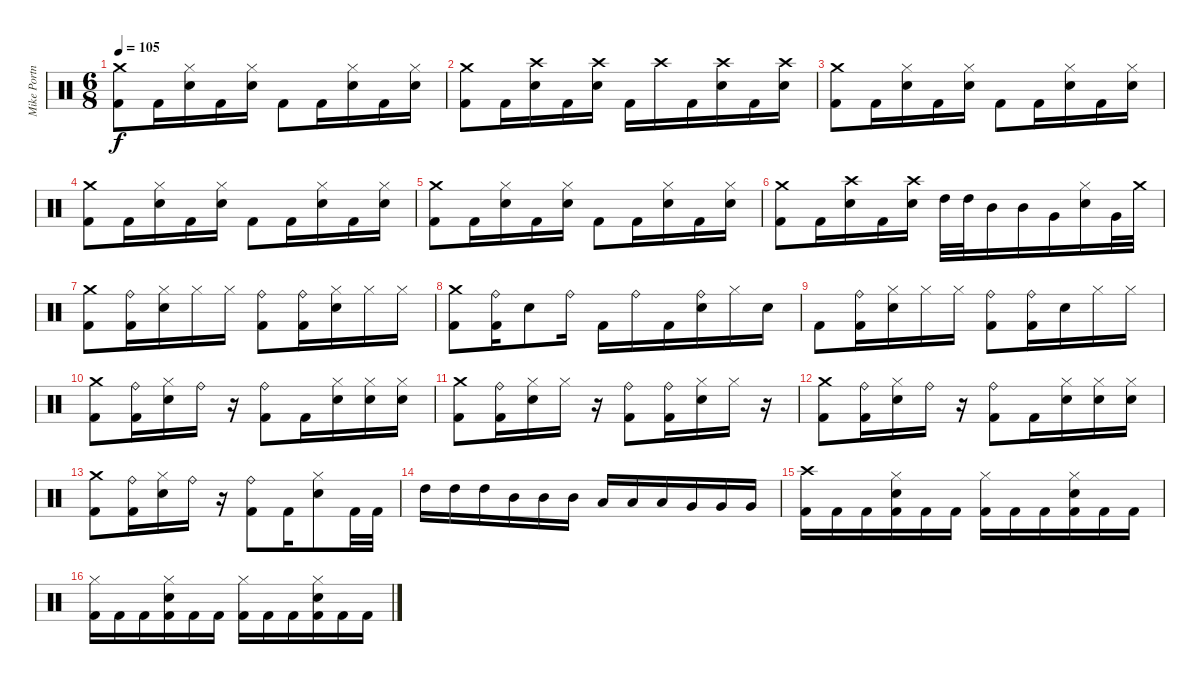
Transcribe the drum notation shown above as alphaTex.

\track ("Mike Portnoy" "Mike Portn") {instrument percussion}
\staff {score}
\articulation defaults
\ts (6 8)
\tempo 105
\clef neutral
\ks c
("Crash medium (hit)" "Kick (hit) 2").8{dy f} "Kick (hit) 2".16 ("Hi-Hat (closed)" "Electric Snare (hit)").16 "Kick (hit) 2".16 ("Hi-Hat (closed)" "Electric Snare (hit)").16 "Kick (hit) 2".8 "Kick (hit) 2".16 ("Hi-Hat (closed)" "Electric Snare (hit)").16 "Kick (hit) 2".16 ("Hi-Hat (closed)" "Electric Snare (hit)").16 |
("Crash medium (hit)" "Kick (hit) 2").8 "Kick (hit) 2".16 ("Crash high (hit)" "Electric Snare (hit)").16 "Kick (hit) 2".16 ("Crash high (hit)" "Electric Snare (hit)").16 "Kick (hit) 2".16 "Crash high (hit)".16 "Kick (hit) 2".16 ("Crash high (hit)" "Electric Snare (hit)").16 "Kick (hit) 2".16 ("Crash high (hit)" "Electric Snare (hit)").16 |
("Crash medium (hit)" "Kick (hit) 2").8 "Kick (hit) 2".16 ("Hi-Hat (closed)" "Electric Snare (hit)").16 "Kick (hit) 2".16 ("Hi-Hat (closed)" "Electric Snare (hit)").16 "Kick (hit) 2".8 "Kick (hit) 2".16 ("Hi-Hat (closed)" "Electric Snare (hit)").16 "Kick (hit) 2".16 ("Hi-Hat (closed)" "Electric Snare (hit)").16 |
("Crash medium (hit)" "Kick (hit) 2").8 "Kick (hit) 2".16 ("Hi-Hat (closed)" "Electric Snare (hit)").16 "Kick (hit) 2".16 ("Hi-Hat (closed)" "Electric Snare (hit)").16 "Kick (hit) 2".8 "Kick (hit) 2".16 ("Hi-Hat (closed)" "Electric Snare (hit)").16 "Kick (hit) 2".16 ("Hi-Hat (closed)" "Electric Snare (hit)").16 |
("Crash medium (hit)" "Kick (hit) 2").8 "Kick (hit) 2".16 ("Hi-Hat (closed)" "Electric Snare (hit)").16 "Kick (hit) 2".16 ("Hi-Hat (closed)" "Electric Snare (hit)").16 "Kick (hit) 2".8 "Kick (hit) 2".16 ("Hi-Hat (closed)" "Electric Snare (hit)").16 "Kick (hit) 2".16 ("Hi-Hat (closed)" "Electric Snare (hit)").16 |
("Crash medium (hit)" "Kick (hit) 2").8 "Kick (hit) 2".16 ("Crash high (hit)" "Electric Snare (hit)").16 "Kick (hit) 2".16 ("Crash high (hit)" "Electric Snare (hit)").16 "High Tom (hit)".32 "High Tom (hit)".32 "Mid Tom (hit)".16 "Mid Tom (hit)".16 "Very Low Tom (hit)".16 ("Hi-Hat (closed)" "Electric Snare (hit)").16 "Very Low Tom (hit)".32 "Crash medium (hit)".32 |
("Crash medium (hit)" "Kick (hit) 2").8 ("Ride (bell)" "Kick (hit) 2").16 ("Hi-Hat (closed)" "Electric Snare (hit)").16 "Hi-Hat (closed)".16 "Hi-Hat (closed)".16 ("Ride (bell)" "Kick (hit) 2").8 ("Ride (bell)" "Kick (hit) 2").16 ("Hi-Hat (closed)" "Electric Snare (hit)").16 "Hi-Hat (closed)".16 "Hi-Hat (closed)".16 |
("Crash medium (hit)" "Kick (hit) 2").8 ("Ride (bell)" "Kick (hit) 2").16 "Electric Snare (hit)".8 "Ride (bell)".16 "Kick (hit) 2".16 "Ride (bell)".16 "Kick (hit) 2".16 ("Ride (bell)" "Electric Snare (hit)").16 "Hi-Hat (closed)".16 "Electric Snare (hit)".16 |
"Kick (hit) 2".8 ("Ride (bell)" "Kick (hit) 2").16 ("Hi-Hat (closed)" "Electric Snare (hit)").16 "Hi-Hat (closed)".16 "Hi-Hat (closed)".16 ("Ride (bell)" "Kick (hit) 2").8 ("Ride (bell)" "Kick (hit) 2").16 "Electric Snare (hit)".16 "Hi-Hat (closed)".16 "Hi-Hat (closed)".16 |
("Crash medium (hit)" "Kick (hit) 2").8 ("Ride (bell)" "Kick (hit) 2").16 ("Hi-Hat (closed)" "Electric Snare (hit)").16 "Ride (bell)".16 r.16 ("Ride (bell)" "Kick (hit) 2").8 "Kick (hit) 2".16 ("Hi-Hat (closed)" "Electric Snare (hit)").16 ("Hi-Hat (closed)" "Electric Snare (hit)").16 ("Hi-Hat (closed)" "Electric Snare (hit)").16 |
("Crash medium (hit)" "Kick (hit) 2").8 ("Ride (bell)" "Kick (hit) 2").16 ("Hi-Hat (closed)" "Electric Snare (hit)").16 "Hi-Hat (closed)".16 r.16 ("Ride (bell)" "Kick (hit) 2").8 ("Ride (bell)" "Kick (hit) 2").16 ("Hi-Hat (closed)" "Electric Snare (hit)").16 "Hi-Hat (closed)".16 r.16 |
("Crash medium (hit)" "Kick (hit) 2").8 ("Ride (bell)" "Kick (hit) 2").16 ("Hi-Hat (closed)" "Electric Snare (hit)").16 "Ride (bell)".16 r.16 ("Ride (bell)" "Kick (hit) 2").8 "Kick (hit) 2".16 ("Hi-Hat (closed)" "Electric Snare (hit)").16 ("Hi-Hat (closed)" "Electric Snare (hit)").16 ("Hi-Hat (closed)" "Electric Snare (hit)").16 |
("Crash medium (hit)" "Kick (hit) 2").8 ("Ride (bell)" "Kick (hit) 2").16 ("Hi-Hat (closed)" "Electric Snare (hit)").16 "Ride (bell)".16 r.16 ("Ride (bell)" "Kick (hit) 2").8 "Kick (hit) 2".16 ("Hi-Hat (closed)" "Electric Snare (hit)").8 "Kick (hit) 2".32 "Kick (hit) 2".32 |
"High Tom (hit)".16 "High Tom (hit)".16 "High Tom (hit)".16 "Mid Tom (hit)".16 "Mid Tom (hit)".16 "Mid Tom (hit)".16 "Low Tom (hit)".16 "Low Tom (hit)".16 "Low Tom (hit)".16 "Very Low Tom (hit)".16 "Very Low Tom (hit)".16 "Very Low Tom (hit)".16 |
("Crash high (hit)" "Kick (hit) 2").16 "Kick (hit) 2".16 "Kick (hit) 2".16 ("Hi-Hat (closed)" "Electric Snare (hit)" "Kick (hit) 2").16 "Kick (hit) 2".16 "Kick (hit) 2".16 ("Hi-Hat (closed)" "Kick (hit) 2").16 "Kick (hit) 2".16 "Kick (hit) 2".16 ("Hi-Hat (closed)" "Electric Snare (hit)" "Kick (hit) 2").16 "Kick (hit) 2".16 "Kick (hit) 2".16 |
("Hi-Hat (closed)" "Kick (hit) 2").16 "Kick (hit) 2".16 "Kick (hit) 2".16 ("Hi-Hat (closed)" "Electric Snare (hit)" "Kick (hit) 2").16 "Kick (hit) 2".16 "Kick (hit) 2".16 ("Hi-Hat (closed)" "Kick (hit) 2").16 "Kick (hit) 2".16 "Kick (hit) 2".16 ("Hi-Hat (closed)" "Electric Snare (hit)" "Kick (hit) 2").16 "Kick (hit) 2".16 "Kick (hit) 2".16
